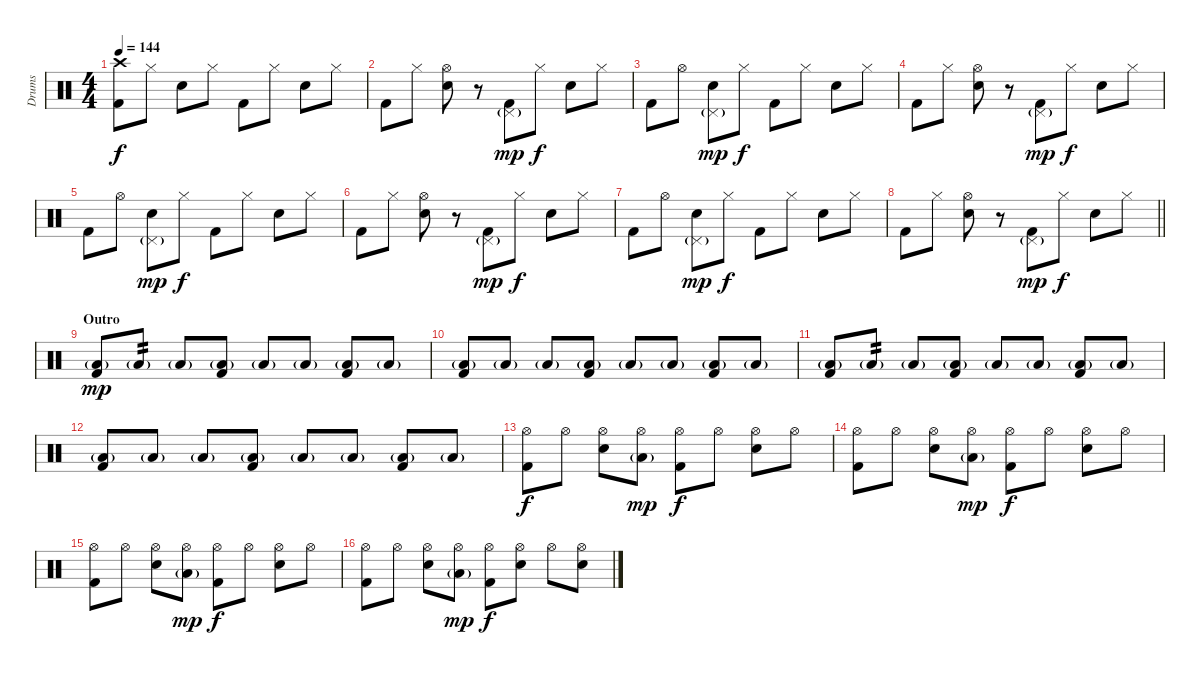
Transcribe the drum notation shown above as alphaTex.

\track ("Drums" "Drums") {instrument percussion}
\staff {score}
\articulation defaults
\ts (4 4)
\tempo 144
\clef neutral
\ks c
("Crash high (hit)" "Kick (hit) 2").8{dy f} "Hi-Hat (closed)".8 "Snare (hit) 2".8 "Hi-Hat (closed)".8 "Kick (hit) 2".8 "Hi-Hat (closed)".8 "Snare (hit) 2".8 "Hi-Hat (closed)".8 |
"Kick (hit) 2".8 "Hi-Hat (closed)".8 ("Hi-Hat (open)" "Snare (hit) 2").8 r.8 ("Pedal Hi-Hat (hit)"{g} "Kick (hit) 2").8{dy mp} "Hi-Hat (closed)".8{dy f} "Snare (hit) 2".8 "Hi-Hat (closed)".8 |
"Kick (hit) 2".8 "Hi-Hat (open)".8 ("Pedal Hi-Hat (hit)"{g} "Snare (hit) 2").8{dy mp} "Hi-Hat (closed)".8{dy f} "Kick (hit) 2".8 "Hi-Hat (closed)".8 "Snare (hit) 2".8 "Hi-Hat (closed)".8 |
"Kick (hit) 2".8 "Hi-Hat (closed)".8 ("Hi-Hat (open)" "Snare (hit) 2").8 r.8 ("Pedal Hi-Hat (hit)"{g} "Kick (hit) 2").8{dy mp} "Hi-Hat (closed)".8{dy f} "Snare (hit) 2".8 "Hi-Hat (closed)".8 |
"Kick (hit) 2".8 "Hi-Hat (open)".8 ("Pedal Hi-Hat (hit)"{g} "Snare (hit) 2").8{dy mp} "Hi-Hat (closed)".8{dy f} "Kick (hit) 2".8 "Hi-Hat (closed)".8 "Snare (hit) 2".8 "Hi-Hat (closed)".8 |
"Kick (hit) 2".8 "Hi-Hat (closed)".8 ("Hi-Hat (open)" "Snare (hit) 2").8 r.8 ("Pedal Hi-Hat (hit)"{g} "Kick (hit) 2").8{dy mp} "Hi-Hat (closed)".8{dy f} "Snare (hit) 2".8 "Hi-Hat (closed)".8 |
"Kick (hit) 2".8 "Hi-Hat (open)".8 ("Pedal Hi-Hat (hit)"{g} "Snare (hit) 2").8{dy mp} "Hi-Hat (closed)".8{dy f} "Kick (hit) 2".8 "Hi-Hat (closed)".8 "Snare (hit) 2".8 "Hi-Hat (closed)".8 |
\barLineRight lightlight "Kick (hit) 2".8 "Hi-Hat (closed)".8
("Hi-Hat (open)" "Snare (hit) 2").8 r.8 ("Pedal Hi-Hat (hit)"{g} "Kick (hit) 2").8{dy mp} "Hi-Hat (closed)".8{dy f} "Snare (hit) 2".8 "Hi-Hat (closed)".8 |
\section ("" "Outro")
("Low Floor Tom (hit)"{g} "Kick (hit) 2").8{dy mp} "Low Floor Tom (hit)"{g}.8{tp 2} "Low Floor Tom (hit)"{g}.8 ("Low Floor Tom (hit)"{g} "Kick (hit) 2").8 "Low Floor Tom (hit)"{g}.8 "Low Floor Tom (hit)"{g}.8 ("Low Floor Tom (hit)"{g} "Kick (hit) 2").8 "Low Floor Tom (hit)"{g}.8 |
("Low Floor Tom (hit)"{g} "Kick (hit) 2").8 "Low Floor Tom (hit)"{g}.8 "Low Floor Tom (hit)"{g}.8 ("Low Floor Tom (hit)"{g} "Kick (hit) 2").8 "Low Floor Tom (hit)"{g}.8 "Low Floor Tom (hit)"{g}.8 ("Low Floor Tom (hit)"{g} "Kick (hit) 2").8 "Low Floor Tom (hit)"{g}.8 |
("Low Floor Tom (hit)"{g} "Kick (hit) 2").8 "Low Floor Tom (hit)"{g}.8{tp 2} "Low Floor Tom (hit)"{g}.8 ("Low Floor Tom (hit)"{g} "Kick (hit) 2").8 "Low Floor Tom (hit)"{g}.8 "Low Floor Tom (hit)"{g}.8 ("Low Floor Tom (hit)"{g} "Kick (hit) 2").8 "Low Floor Tom (hit)"{g}.8 |
("Low Floor Tom (hit)"{g} "Kick (hit) 2").8 "Low Floor Tom (hit)"{g}.8 "Low Floor Tom (hit)"{g}.8 ("Low Floor Tom (hit)"{g} "Kick (hit) 2").8 "Low Floor Tom (hit)"{g}.8 "Low Floor Tom (hit)"{g}.8 ("Low Floor Tom (hit)"{g} "Kick (hit) 2").8 "Low Floor Tom (hit)"{g}.8 |
("Hi-Hat (open)" "Kick (hit) 2").8{dy f} "Hi-Hat (open)".8 ("Hi-Hat (open)" "Snare (hit) 2").8 ("Hi-Hat (open)" "Low Floor Tom (hit)"{g}).8{dy mp} ("Hi-Hat (open)" "Kick (hit) 2").8{dy f} "Hi-Hat (open)".8 ("Hi-Hat (open)" "Snare (hit) 2").8 "Hi-Hat (open)".8 |
("Hi-Hat (open)" "Kick (hit) 2").8 "Hi-Hat (open)".8 ("Hi-Hat (open)" "Snare (hit) 2").8 ("Hi-Hat (open)" "Low Floor Tom (hit)"{g}).8{dy mp} ("Hi-Hat (open)" "Kick (hit) 2").8{dy f} "Hi-Hat (open)".8 ("Hi-Hat (open)" "Snare (hit) 2").8 "Hi-Hat (open)".8 |
("Hi-Hat (open)" "Kick (hit) 2").8 "Hi-Hat (open)".8 ("Hi-Hat (open)" "Snare (hit) 2").8 ("Hi-Hat (open)" "Low Floor Tom (hit)"{g}).8{dy mp} ("Hi-Hat (open)" "Kick (hit) 2").8{dy f} "Hi-Hat (open)".8 ("Hi-Hat (open)" "Snare (hit) 2").8 "Hi-Hat (open)".8 |
("Hi-Hat (open)" "Kick (hit) 2").8 "Hi-Hat (open)".8 ("Hi-Hat (open)" "Snare (hit) 2").8 ("Hi-Hat (open)" "Low Floor Tom (hit)"{g}).8{dy mp} ("Hi-Hat (open)" "Kick (hit) 2").8{dy f} ("Hi-Hat (open)" "Snare (hit) 2").8 "Hi-Hat (open)".8 ("Hi-Hat (open)" "Snare (hit) 2").8
